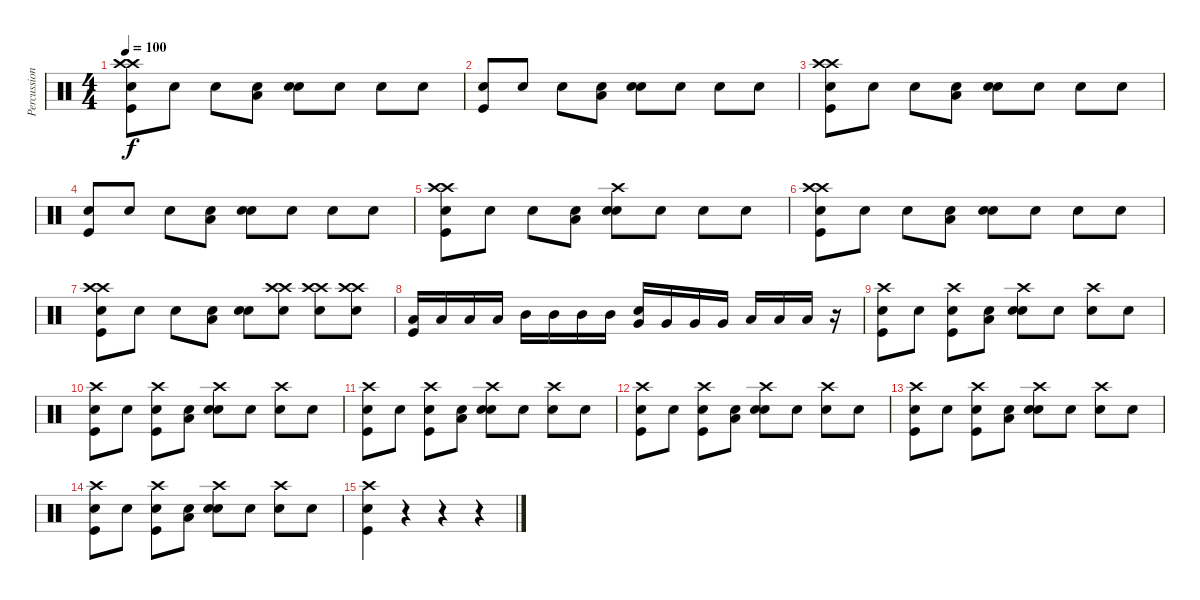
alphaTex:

\track ("Percussions" "Percussion") {instrument percussion}
\staff {score}
\articulation defaults
\ts (4 4)
\tempo 100
\clef neutral
\ks c
("Crash high (hit)" "Crash high (hit)" "Kick (hit)" "Snare (hit) 2").8{dy f} "Snare (hit) 2".8 "Snare (hit) 2".8 ("Low Tom (hit)" "Snare (hit) 2").8 ("Hand Clap (hit)" "Snare (hit) 2").8 "Snare (hit) 2".8 "Snare (hit) 2".8 "Snare (hit) 2".8 |
("Kick (hit)" "Snare (hit) 2").8 "Snare (hit) 2".8 "Snare (hit) 2".8 ("Low Tom (hit)" "Snare (hit) 2").8 ("Hand Clap (hit)" "Snare (hit) 2").8 "Snare (hit) 2".8 "Snare (hit) 2".8 "Snare (hit) 2".8 |
("Crash high (hit)" "Crash high (hit)" "Kick (hit)" "Snare (hit) 2").8 "Snare (hit) 2".8 "Snare (hit) 2".8 ("Low Tom (hit)" "Snare (hit) 2").8 ("Hand Clap (hit)" "Snare (hit) 2").8 "Snare (hit) 2".8 "Snare (hit) 2".8 "Snare (hit) 2".8 |
("Kick (hit)" "Snare (hit) 2").8 "Snare (hit) 2".8 "Snare (hit) 2".8 ("Low Tom (hit)" "Snare (hit) 2").8 ("Hand Clap (hit)" "Snare (hit) 2").8 "Snare (hit) 2".8 "Snare (hit) 2".8 "Snare (hit) 2".8 |
("Crash high (hit)" "Crash high (hit)" "Kick (hit)" "Snare (hit) 2").8 "Snare (hit) 2".8 "Snare (hit) 2".8 ("Low Tom (hit)" "Snare (hit) 2").8 ("Hand Clap (hit)" "Crash high (hit)" "Snare (hit) 2").8 "Snare (hit) 2".8 "Snare (hit) 2".8 "Snare (hit) 2".8 |
("Crash high (hit)" "Crash high (hit)" "Kick (hit)" "Snare (hit) 2").8 "Snare (hit) 2".8 "Snare (hit) 2".8 ("Low Tom (hit)" "Snare (hit) 2").8 ("Hand Clap (hit)" "Snare (hit) 2").8 "Snare (hit) 2".8 "Snare (hit) 2".8 "Snare (hit) 2".8 |
("Crash high (hit)" "Crash high (hit)" "Kick (hit)" "Snare (hit) 2").8 "Snare (hit) 2".8 "Snare (hit) 2".8 ("Low Tom (hit)" "Snare (hit) 2").8 ("Hand Clap (hit)" "Snare (hit) 2").8 ("Crash high (hit)" "Crash high (hit)" "Snare (hit) 2").8 ("Crash high (hit)" "Crash high (hit)" "Snare (hit) 2").8 ("Crash high (hit)" "Crash high (hit)" "Snare (hit) 2").8 |
("Kick (hit)" "Low Tom (hit)").16 "Low Tom (hit)".16 "Low Tom (hit)".16 "Low Tom (hit)".16 "Mid Tom (hit)".16 "Mid Tom (hit)".16 "Mid Tom (hit)".16 "Mid Tom (hit)".16 ("Hand Clap (hit)" "Very Low Tom (hit)").16 "Very Low Tom (hit)".16 "Very Low Tom (hit)".16 "Very Low Tom (hit)".16 "Low Tom (hit)".16 "Low Tom (hit)".16 "Low Tom (hit)".16 r.16 |
("Crash high (hit)" "Kick (hit)" "Snare (hit) 2").8 "Snare (hit) 2".8 ("Crash high (hit)" "Kick (hit)" "Snare (hit) 2").8 ("Low Tom (hit)" "Snare (hit) 2").8 ("Hand Clap (hit)" "Crash high (hit)" "Snare (hit) 2").8 "Snare (hit) 2".8 ("Crash high (hit)" "Snare (hit) 2").8 "Snare (hit) 2".8 |
("Crash high (hit)" "Kick (hit)" "Snare (hit) 2").8 "Snare (hit) 2".8 ("Crash high (hit)" "Kick (hit)" "Snare (hit) 2").8 ("Low Tom (hit)" "Snare (hit) 2").8 ("Hand Clap (hit)" "Crash high (hit)" "Snare (hit) 2").8 "Snare (hit) 2".8 ("Crash high (hit)" "Snare (hit) 2").8 "Snare (hit) 2".8 |
("Crash high (hit)" "Kick (hit)" "Snare (hit) 2").8 "Snare (hit) 2".8 ("Crash high (hit)" "Kick (hit)" "Snare (hit) 2").8 ("Low Tom (hit)" "Snare (hit) 2").8 ("Hand Clap (hit)" "Crash high (hit)" "Snare (hit) 2").8 "Snare (hit) 2".8 ("Crash high (hit)" "Snare (hit) 2").8 "Snare (hit) 2".8 |
("Crash high (hit)" "Kick (hit)" "Snare (hit) 2").8 "Snare (hit) 2".8 ("Crash high (hit)" "Kick (hit)" "Snare (hit) 2").8 ("Low Tom (hit)" "Snare (hit) 2").8 ("Hand Clap (hit)" "Crash high (hit)" "Snare (hit) 2").8 "Snare (hit) 2".8 ("Crash high (hit)" "Snare (hit) 2").8 "Snare (hit) 2".8 |
("Crash high (hit)" "Kick (hit)" "Snare (hit) 2").8 "Snare (hit) 2".8 ("Crash high (hit)" "Kick (hit)" "Snare (hit) 2").8 ("Low Tom (hit)" "Snare (hit) 2").8 ("Hand Clap (hit)" "Crash high (hit)" "Snare (hit) 2").8 "Snare (hit) 2".8 ("Crash high (hit)" "Snare (hit) 2").8 "Snare (hit) 2".8 |
("Crash high (hit)" "Kick (hit)" "Snare (hit) 2").8 "Snare (hit) 2".8 ("Crash high (hit)" "Kick (hit)" "Snare (hit) 2").8 ("Low Tom (hit)" "Snare (hit) 2").8 ("Hand Clap (hit)" "Crash high (hit)" "Snare (hit) 2").8 "Snare (hit) 2".8 ("Crash high (hit)" "Snare (hit) 2").8 "Snare (hit) 2".8 |
("Crash high (hit)" "Hand Clap (hit)" "Kick (hit)").4 r.4 r.4 r.4
